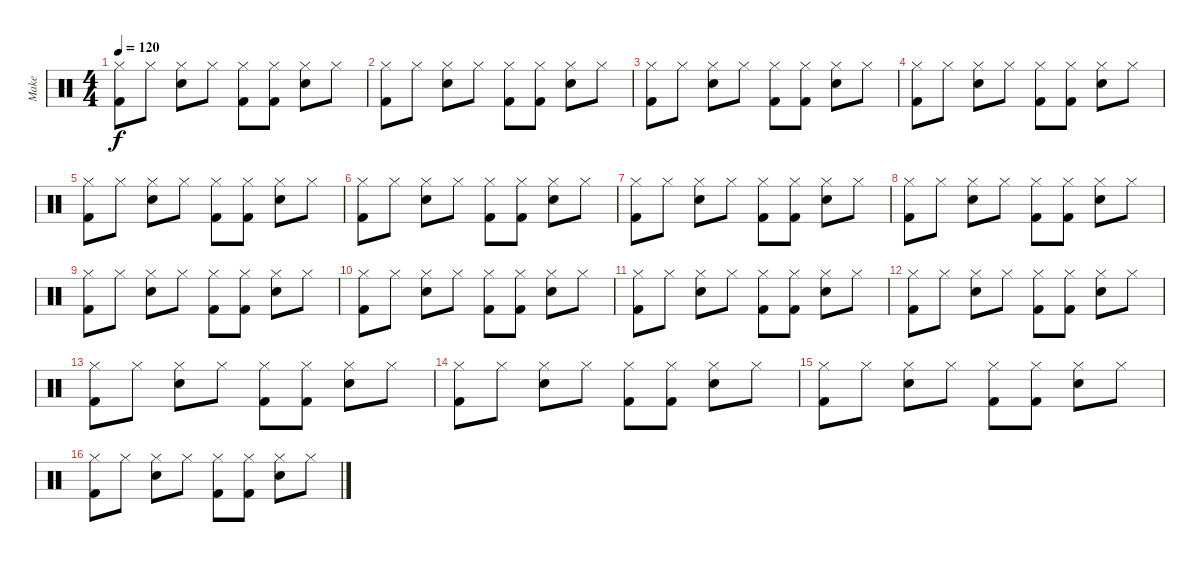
\track ("Make" "Make") {instrument percussion}
\staff {score}
\articulation defaults
\ts (4 4)
\tempo 120
\clef neutral
\ks c
("Hi-Hat (closed)" "Kick (hit) 2").8{dy f} "Hi-Hat (closed)".8 ("Hi-Hat (closed)" "Electric Snare (hit)").8 "Hi-Hat (closed)".8 ("Hi-Hat (closed)" "Kick (hit) 2").8 ("Hi-Hat (closed)" "Kick (hit) 2").8 ("Hi-Hat (closed)" "Electric Snare (hit)").8 "Hi-Hat (closed)".8 |
("Hi-Hat (closed)" "Kick (hit) 2").8 "Hi-Hat (closed)".8 ("Hi-Hat (closed)" "Electric Snare (hit)").8 "Hi-Hat (closed)".8 ("Hi-Hat (closed)" "Kick (hit) 2").8 ("Hi-Hat (closed)" "Kick (hit) 2").8 ("Hi-Hat (closed)" "Electric Snare (hit)").8 "Hi-Hat (closed)".8 |
("Hi-Hat (closed)" "Kick (hit) 2").8 "Hi-Hat (closed)".8 ("Hi-Hat (closed)" "Electric Snare (hit)").8 "Hi-Hat (closed)".8 ("Hi-Hat (closed)" "Kick (hit) 2").8 ("Hi-Hat (closed)" "Kick (hit) 2").8 ("Hi-Hat (closed)" "Electric Snare (hit)").8 "Hi-Hat (closed)".8 |
("Hi-Hat (closed)" "Kick (hit) 2").8 "Hi-Hat (closed)".8 ("Hi-Hat (closed)" "Electric Snare (hit)").8 "Hi-Hat (closed)".8 ("Hi-Hat (closed)" "Kick (hit) 2").8 ("Hi-Hat (closed)" "Kick (hit) 2").8 ("Hi-Hat (closed)" "Electric Snare (hit)").8 "Hi-Hat (closed)".8 |
("Hi-Hat (closed)" "Kick (hit) 2").8 "Hi-Hat (closed)".8 ("Hi-Hat (closed)" "Electric Snare (hit)").8 "Hi-Hat (closed)".8 ("Hi-Hat (closed)" "Kick (hit) 2").8 ("Hi-Hat (closed)" "Kick (hit) 2").8 ("Hi-Hat (closed)" "Electric Snare (hit)").8 "Hi-Hat (closed)".8 |
("Hi-Hat (closed)" "Kick (hit) 2").8 "Hi-Hat (closed)".8 ("Hi-Hat (closed)" "Electric Snare (hit)").8 "Hi-Hat (closed)".8 ("Hi-Hat (closed)" "Kick (hit) 2").8 ("Hi-Hat (closed)" "Kick (hit) 2").8 ("Hi-Hat (closed)" "Electric Snare (hit)").8 "Hi-Hat (closed)".8 |
("Hi-Hat (closed)" "Kick (hit) 2").8 "Hi-Hat (closed)".8 ("Hi-Hat (closed)" "Electric Snare (hit)").8 "Hi-Hat (closed)".8 ("Hi-Hat (closed)" "Kick (hit) 2").8 ("Hi-Hat (closed)" "Kick (hit) 2").8 ("Hi-Hat (closed)" "Electric Snare (hit)").8 "Hi-Hat (closed)".8 |
("Hi-Hat (closed)" "Kick (hit) 2").8 "Hi-Hat (closed)".8 ("Hi-Hat (closed)" "Electric Snare (hit)").8 "Hi-Hat (closed)".8 ("Hi-Hat (closed)" "Kick (hit) 2").8 ("Hi-Hat (closed)" "Kick (hit) 2").8 ("Hi-Hat (closed)" "Electric Snare (hit)").8 "Hi-Hat (closed)".8 |
("Hi-Hat (closed)" "Kick (hit) 2").8 "Hi-Hat (closed)".8 ("Hi-Hat (closed)" "Electric Snare (hit)").8 "Hi-Hat (closed)".8 ("Hi-Hat (closed)" "Kick (hit) 2").8 ("Hi-Hat (closed)" "Kick (hit) 2").8 ("Hi-Hat (closed)" "Electric Snare (hit)").8 "Hi-Hat (closed)".8 |
("Hi-Hat (closed)" "Kick (hit) 2").8 "Hi-Hat (closed)".8 ("Hi-Hat (closed)" "Electric Snare (hit)").8 "Hi-Hat (closed)".8 ("Hi-Hat (closed)" "Kick (hit) 2").8 ("Hi-Hat (closed)" "Kick (hit) 2").8 ("Hi-Hat (closed)" "Electric Snare (hit)").8 "Hi-Hat (closed)".8 |
("Hi-Hat (closed)" "Kick (hit) 2").8 "Hi-Hat (closed)".8 ("Hi-Hat (closed)" "Electric Snare (hit)").8 "Hi-Hat (closed)".8 ("Hi-Hat (closed)" "Kick (hit) 2").8 ("Hi-Hat (closed)" "Kick (hit) 2").8 ("Hi-Hat (closed)" "Electric Snare (hit)").8 "Hi-Hat (closed)".8 |
("Hi-Hat (closed)" "Kick (hit) 2").8 "Hi-Hat (closed)".8 ("Hi-Hat (closed)" "Electric Snare (hit)").8 "Hi-Hat (closed)".8 ("Hi-Hat (closed)" "Kick (hit) 2").8 ("Hi-Hat (closed)" "Kick (hit) 2").8 ("Hi-Hat (closed)" "Electric Snare (hit)").8 "Hi-Hat (closed)".8 |
("Hi-Hat (closed)" "Kick (hit) 2").8 "Hi-Hat (closed)".8 ("Hi-Hat (closed)" "Electric Snare (hit)").8 "Hi-Hat (closed)".8 ("Hi-Hat (closed)" "Kick (hit) 2").8 ("Hi-Hat (closed)" "Kick (hit) 2").8 ("Hi-Hat (closed)" "Electric Snare (hit)").8 "Hi-Hat (closed)".8 |
("Hi-Hat (closed)" "Kick (hit) 2").8 "Hi-Hat (closed)".8 ("Hi-Hat (closed)" "Electric Snare (hit)").8 "Hi-Hat (closed)".8 ("Hi-Hat (closed)" "Kick (hit) 2").8 ("Hi-Hat (closed)" "Kick (hit) 2").8 ("Hi-Hat (closed)" "Electric Snare (hit)").8 "Hi-Hat (closed)".8 |
("Hi-Hat (closed)" "Kick (hit) 2").8 "Hi-Hat (closed)".8 ("Hi-Hat (closed)" "Electric Snare (hit)").8 "Hi-Hat (closed)".8 ("Hi-Hat (closed)" "Kick (hit) 2").8 ("Hi-Hat (closed)" "Kick (hit) 2").8 ("Hi-Hat (closed)" "Electric Snare (hit)").8 "Hi-Hat (closed)".8 |
("Hi-Hat (closed)" "Kick (hit) 2").8 "Hi-Hat (closed)".8 ("Hi-Hat (closed)" "Electric Snare (hit)").8 "Hi-Hat (closed)".8 ("Hi-Hat (closed)" "Kick (hit) 2").8 ("Hi-Hat (closed)" "Kick (hit) 2").8 ("Hi-Hat (closed)" "Electric Snare (hit)").8 "Hi-Hat (closed)".8
